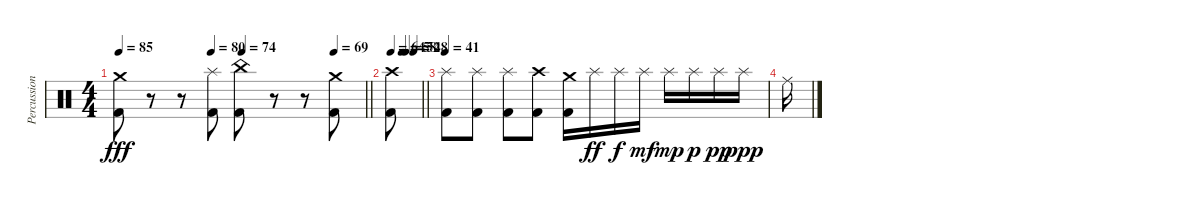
\track ("Percussion" "Percussion") {instrument percussion}
\staff {score}
\articulation defaults
\ts (4 4)
\tempo 85
\tempo (80 0.375)
\tempo (74 0.5)
\tempo (69 0.875)
\clef neutral
\barLineRight lightlight
\ks c
("Crash medium (hit)" "Kick (hit) 2").8{dy fff} r.8 r.8 ("Splash (hit)" "Kick (hit) 2").8 ("China (hit)" "Kick (hit) 2").8 r.8 r.8 ("Crash medium (hit)" "Kick (hit) 2").8 |
\tempo 64
\tempo (58 0.375)
\tempo (52 0.5)
\tempo (48 0.75)
\barLineRight lightlight
("Crash high (hit)" "Kick (hit) 2").8 |
\tempo 41
("Splash (hit)" "Kick (hit) 2").8 ("Splash (hit)" "Kick (hit) 2").8 ("Splash (hit)" "Kick (hit) 2").8 ("Crash high (hit)" "Kick (hit) 2").8 ("Crash medium (hit)" "Kick (hit) 2").16 "Splash (hit)".16{dy ff} "Splash (hit)".16{dy f} "Splash (hit)".16{dy mf} "Splash (hit)".16{dy mp} "Splash (hit)".16{dy p} "Splash (hit)".16{dy pp} "Splash (hit)".16{dy ppp} |
"Ride (middle)".16
